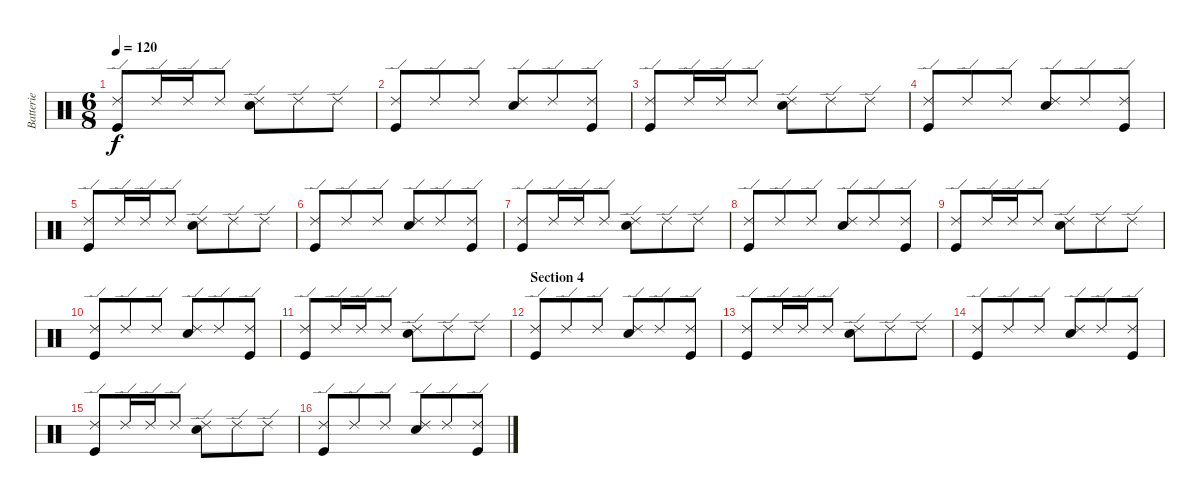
\track ("Batterie" "Batterie") {instrument percussion}
\staff {score}
\articulation defaults
\ts (6 8)
\tempo 120
\clef neutral
\ks c
("Ride (edge) 2" "Kick (hit)").8{dy f} "Ride (edge) 2".16 "Ride (edge) 2".16 "Ride (edge) 2".8 ("Ride (edge) 2" "Snare (hit) 2").8 "Ride (edge) 2".8 "Ride (edge) 2".8 |
("Ride (edge) 2" "Kick (hit)").8 "Ride (edge) 2".8 "Ride (edge) 2".8 ("Ride (edge) 2" "Snare (hit) 2").8 "Ride (edge) 2".8 ("Ride (edge) 2" "Kick (hit)").8 |
("Ride (edge) 2" "Kick (hit)").8 "Ride (edge) 2".16 "Ride (edge) 2".16 "Ride (edge) 2".8 ("Ride (edge) 2" "Snare (hit) 2").8 "Ride (edge) 2".8 "Ride (edge) 2".8 |
("Ride (edge) 2" "Kick (hit)").8 "Ride (edge) 2".8 "Ride (edge) 2".8 ("Ride (edge) 2" "Snare (hit) 2").8 "Ride (edge) 2".8 ("Ride (edge) 2" "Kick (hit)").8 |
("Ride (edge) 2" "Kick (hit)").8 "Ride (edge) 2".16 "Ride (edge) 2".16 "Ride (edge) 2".8 ("Ride (edge) 2" "Snare (hit) 2").8 "Ride (edge) 2".8 "Ride (edge) 2".8 |
("Ride (edge) 2" "Kick (hit)").8 "Ride (edge) 2".8 "Ride (edge) 2".8 ("Ride (edge) 2" "Snare (hit) 2").8 "Ride (edge) 2".8 ("Ride (edge) 2" "Kick (hit)").8 |
("Ride (edge) 2" "Kick (hit)").8 "Ride (edge) 2".16 "Ride (edge) 2".16 "Ride (edge) 2".8 ("Ride (edge) 2" "Snare (hit) 2").8 "Ride (edge) 2".8 "Ride (edge) 2".8 |
("Ride (edge) 2" "Kick (hit)").8 "Ride (edge) 2".8 "Ride (edge) 2".8 ("Ride (edge) 2" "Snare (hit) 2").8 "Ride (edge) 2".8 ("Ride (edge) 2" "Kick (hit)").8 |
("Ride (edge) 2" "Kick (hit)").8 "Ride (edge) 2".16 "Ride (edge) 2".16 "Ride (edge) 2".8 ("Ride (edge) 2" "Snare (hit) 2").8 "Ride (edge) 2".8 "Ride (edge) 2".8 |
("Ride (edge) 2" "Kick (hit)").8 "Ride (edge) 2".8 "Ride (edge) 2".8 ("Ride (edge) 2" "Snare (hit) 2").8 "Ride (edge) 2".8 ("Ride (edge) 2" "Kick (hit)").8 |
("Ride (edge) 2" "Kick (hit)").8 "Ride (edge) 2".16 "Ride (edge) 2".16 "Ride (edge) 2".8 ("Ride (edge) 2" "Snare (hit) 2").8 "Ride (edge) 2".8 "Ride (edge) 2".8 |
\section ("" "Section 4")
("Ride (edge) 2" "Kick (hit)").8 "Ride (edge) 2".8 "Ride (edge) 2".8 ("Ride (edge) 2" "Snare (hit) 2").8 "Ride (edge) 2".8 ("Ride (edge) 2" "Kick (hit)").8 |
("Ride (edge) 2" "Kick (hit)").8 "Ride (edge) 2".16 "Ride (edge) 2".16 "Ride (edge) 2".8 ("Ride (edge) 2" "Snare (hit) 2").8 "Ride (edge) 2".8 "Ride (edge) 2".8 |
("Ride (edge) 2" "Kick (hit)").8 "Ride (edge) 2".8 "Ride (edge) 2".8 ("Ride (edge) 2" "Snare (hit) 2").8 "Ride (edge) 2".8 ("Ride (edge) 2" "Kick (hit)").8 |
("Ride (edge) 2" "Kick (hit)").8 "Ride (edge) 2".16 "Ride (edge) 2".16 "Ride (edge) 2".8 ("Ride (edge) 2" "Snare (hit) 2").8 "Ride (edge) 2".8 "Ride (edge) 2".8 |
("Ride (edge) 2" "Kick (hit)").8 "Ride (edge) 2".8 "Ride (edge) 2".8 ("Ride (edge) 2" "Snare (hit) 2").8 "Ride (edge) 2".8 ("Ride (edge) 2" "Kick (hit)").8
